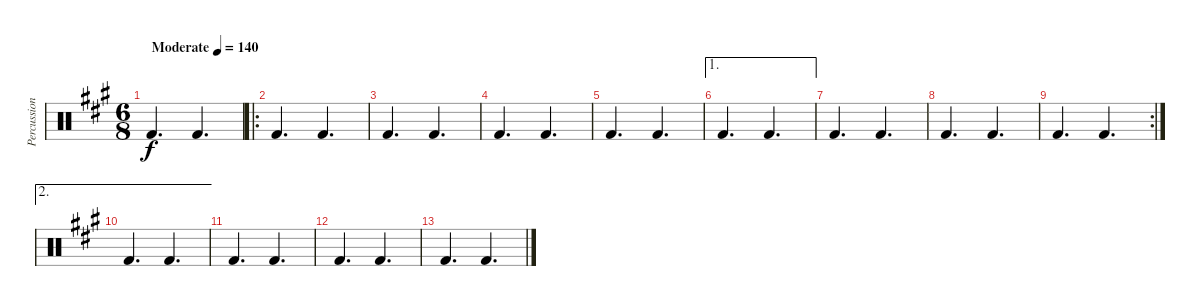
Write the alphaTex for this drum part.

\track ("Percussions" "Percussion") {instrument percussion}
\staff {score}
\articulation defaults
\ts (6 8)
\tempo (140 "Moderate")
\clef neutral
\ks a "Kick (hit) 2".4{d dy f} "Kick (hit) 2".4{d}
|
\ro "Kick (hit) 2".4{d} "Kick (hit) 2".4{d}
|
"Kick (hit) 2".4{d} "Kick (hit) 2".4{d} |
"Kick (hit) 2".4{d} "Kick (hit) 2".4{d} |
"Kick (hit) 2".4{d} "Kick (hit) 2".4{d} |
\ae 1 "Kick (hit) 2".4{d} "Kick (hit) 2".4{d}
|
"Kick (hit) 2".4{d} "Kick (hit) 2".4{d} |
"Kick (hit) 2".4{d} "Kick (hit) 2".4{d} |
\rc 2 "Kick (hit) 2".4{d} "Kick (hit) 2".4{d}
|
\ae 2 "Kick (hit) 2".4{d} "Kick (hit) 2".4{d}
|
"Kick (hit) 2".4{d} "Kick (hit) 2".4{d} |
"Kick (hit) 2".4{d} "Kick (hit) 2".4{d} |
"Kick (hit) 2".4{d} "Kick (hit) 2".4{d}
